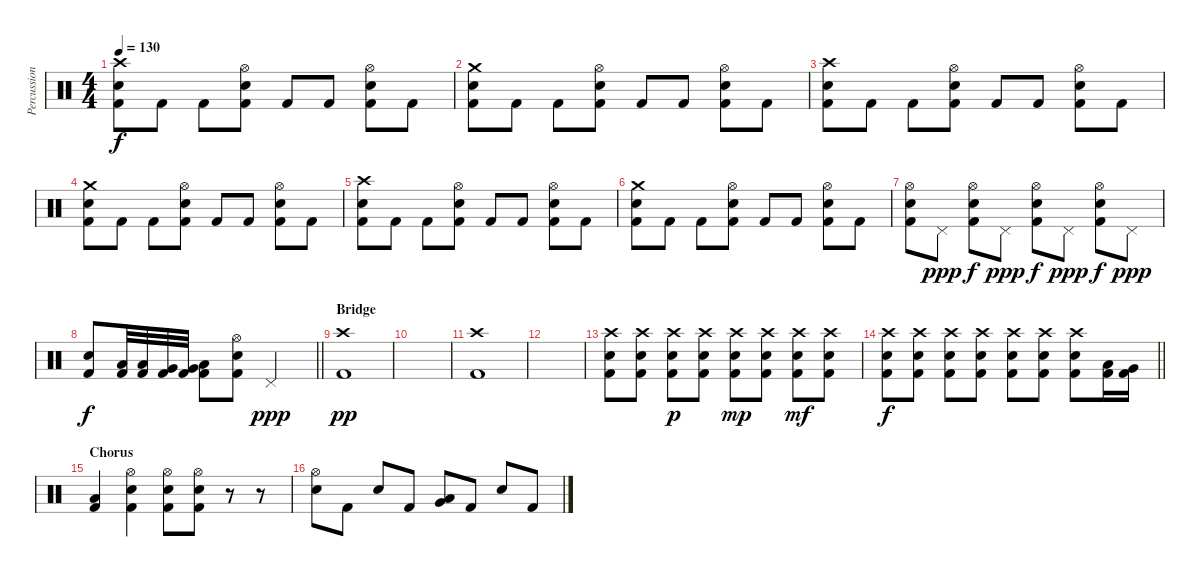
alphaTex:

\track ("Percussion" "Percussion") {instrument percussion}
\staff {score}
\articulation defaults
\ts (4 4)
\tempo 130
\clef neutral
\ks c
("Crash high (hit)" "Snare (hit) 2" "Kick (hit) 2").8{dy f} "Kick (hit) 2".8 "Kick (hit) 2".8 ("Hi-Hat (open)" "Snare (hit) 2" "Kick (hit) 2").8 "Kick (hit) 2".8 "Kick (hit) 2".8 ("Hi-Hat (open)" "Snare (hit) 2" "Kick (hit) 2").8 "Kick (hit) 2".8 |
("Crash medium (hit)" "Snare (hit) 2" "Kick (hit) 2").8 "Kick (hit) 2".8 "Kick (hit) 2".8 ("Hi-Hat (open)" "Snare (hit) 2" "Kick (hit) 2").8 "Kick (hit) 2".8 "Kick (hit) 2".8 ("Hi-Hat (open)" "Snare (hit) 2" "Kick (hit) 2").8 "Kick (hit) 2".8 |
("Crash high (hit)" "Snare (hit) 2" "Kick (hit) 2").8 "Kick (hit) 2".8 "Kick (hit) 2".8 ("Hi-Hat (open)" "Snare (hit) 2" "Kick (hit) 2").8 "Kick (hit) 2".8 "Kick (hit) 2".8 ("Hi-Hat (open)" "Snare (hit) 2" "Kick (hit) 2").8 "Kick (hit) 2".8 |
("Crash medium (hit)" "Snare (hit) 2" "Kick (hit) 2").8 "Kick (hit) 2".8 "Kick (hit) 2".8 ("Hi-Hat (open)" "Snare (hit) 2" "Kick (hit) 2").8 "Kick (hit) 2".8 "Kick (hit) 2".8 ("Hi-Hat (open)" "Snare (hit) 2" "Kick (hit) 2").8 "Kick (hit) 2".8 |
("Crash high (hit)" "Snare (hit) 2" "Kick (hit) 2").8 "Kick (hit) 2".8 "Kick (hit) 2".8 ("Hi-Hat (open)" "Snare (hit) 2" "Kick (hit) 2").8 "Kick (hit) 2".8 "Kick (hit) 2".8 ("Hi-Hat (open)" "Snare (hit) 2" "Kick (hit) 2").8 "Kick (hit) 2".8 |
("Crash medium (hit)" "Snare (hit) 2" "Kick (hit) 2").8 "Kick (hit) 2".8 "Kick (hit) 2".8 ("Hi-Hat (open)" "Snare (hit) 2" "Kick (hit) 2").8 "Kick (hit) 2".8 "Kick (hit) 2".8 ("Hi-Hat (open)" "Snare (hit) 2" "Kick (hit) 2").8 "Kick (hit) 2".8 |
("Hi-Hat (open)" "Snare (hit) 2" "Kick (hit) 2").8 "Pedal Hi-Hat (hit)".8{dy ppp} ("Hi-Hat (open)" "Snare (hit) 2" "Kick (hit) 2").8{dy f} "Pedal Hi-Hat (hit)".8{dy ppp} ("Hi-Hat (open)" "Snare (hit) 2" "Kick (hit) 2").8{dy f} "Pedal Hi-Hat (hit)".8{dy ppp} ("Hi-Hat (open)" "Snare (hit) 2" "Kick (hit) 2").8{dy f} "Pedal Hi-Hat (hit)".8{dy ppp} |
\barLineRight lightlight
("Snare (hit) 2" "Kick (hit) 2").8{dy f} ("Low Tom (hit)" "Kick (hit) 2").32 ("Low Tom (hit)" "Kick (hit) 2").32 ("Very Low Tom (hit)" "Kick (hit) 2").32 ("Very Low Tom (hit)" "Kick (hit) 2").32 ("Low Floor Tom (hit)" "Kick (hit) 2").8 ("Hi-Hat (open)" "Snare (hit) 2" "Kick (hit) 2").8 "Pedal Hi-Hat (hit)".2{dy ppp} |
\section ("" "Bridge")
("Crash high (hit)" "Kick (hit) 2").1{dy pp} |
|
("Crash high (hit)" "Kick (hit) 2").1 |
|
("Crash high (hit)" "Snare (hit) 2" "Kick (hit) 2").8 ("Crash high (hit)" "Snare (hit) 2" "Kick (hit) 2").8 ("Crash high (hit)" "Snare (hit) 2" "Kick (hit) 2").8{dy p} ("Crash high (hit)" "Snare (hit) 2" "Kick (hit) 2").8 ("Crash high (hit)" "Snare (hit) 2" "Kick (hit) 2").8{dy mp} ("Crash high (hit)" "Snare (hit) 2" "Kick (hit) 2").8 ("Crash high (hit)" "Snare (hit) 2" "Kick (hit) 2").8{dy mf} ("Crash high (hit)" "Snare (hit) 2" "Kick (hit) 2").8 |
\barLineRight lightlight
("Crash high (hit)" "Snare (hit) 2" "Kick (hit) 2").8{dy f} ("Crash high (hit)" "Snare (hit) 2" "Kick (hit) 2").8 ("Crash high (hit)" "Snare (hit) 2" "Kick (hit) 2").8 ("Crash high (hit)" "Snare (hit) 2" "Kick (hit) 2").8 ("Crash high (hit)" "Snare (hit) 2" "Kick (hit) 2").8 ("Crash high (hit)" "Snare (hit) 2" "Kick (hit) 2").8 ("Crash high (hit)" "Snare (hit) 2" "Kick (hit) 2").8 ("Low Tom (hit)" "Kick (hit) 2").16 ("Very Low Tom (hit)" "Kick (hit) 2").16 |
\section ("" "Chorus")
("Low Floor Tom (hit)" "Kick (hit) 2").4 ("Hi-Hat (open)" "Snare (hit) 2" "Kick (hit) 2").4 ("Hi-Hat (open)" "Snare (hit) 2" "Kick (hit) 2").8 ("Hi-Hat (open)" "Snare (hit) 2" "Kick (hit) 2").8 r.8 r.8 |
("Hi-Hat (open)" "Snare (hit) 2").8 "Kick (hit) 2".8 "Snare (hit) 2".8 "Kick (hit) 2".8 ("Very Low Tom (hit)" "Low Floor Tom (hit)").8 "Kick (hit) 2".8 "Snare (hit) 2".8 "Kick (hit) 2".8
